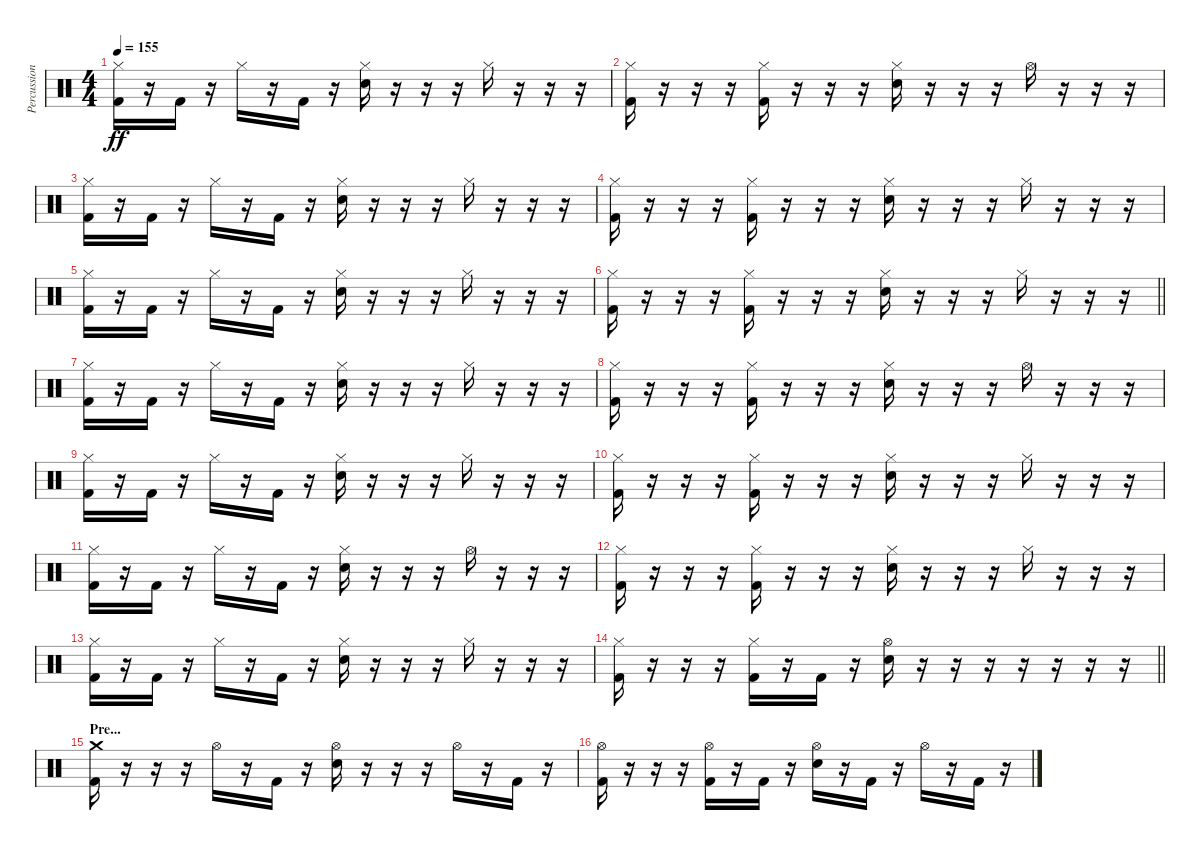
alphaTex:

\track ("Percussion" "Percussion") {instrument percussion}
\staff {score}
\articulation defaults
\ts (4 4)
\tempo 155
\clef neutral
\ks c
("Hi-Hat (closed)" "Kick (hit) 2").16{dy ff} r.16 "Kick (hit) 2".16 r.16 "Hi-Hat (closed)".16 r.16 "Kick (hit) 2".16 r.16 ("Hi-Hat (closed)" "Electric Snare (hit)").16 r.16 r.16 r.16 "Hi-Hat (closed)".16 r.16 r.16 r.16 |
("Hi-Hat (closed)" "Kick (hit) 2").16 r.16 r.16 r.16 ("Hi-Hat (closed)" "Kick (hit) 2").16 r.16 r.16 r.16 ("Hi-Hat (closed)" "Electric Snare (hit)").16 r.16 r.16 r.16 "Hi-Hat (open)".16 r.16 r.16 r.16 |
("Hi-Hat (closed)" "Kick (hit) 2").16 r.16 "Kick (hit) 2".16 r.16 "Hi-Hat (closed)".16 r.16 "Kick (hit) 2".16 r.16 ("Hi-Hat (closed)" "Electric Snare (hit)").16 r.16 r.16 r.16 "Hi-Hat (closed)".16 r.16 r.16 r.16 |
("Hi-Hat (closed)" "Kick (hit) 2").16 r.16 r.16 r.16 ("Hi-Hat (closed)" "Kick (hit) 2").16 r.16 r.16 r.16 ("Hi-Hat (closed)" "Electric Snare (hit)").16 r.16 r.16 r.16 "Hi-Hat (closed)".16 r.16 r.16 r.16 |
("Hi-Hat (closed)" "Kick (hit) 2").16 r.16 "Kick (hit) 2".16 r.16 "Hi-Hat (closed)".16 r.16 "Kick (hit) 2".16 r.16 ("Hi-Hat (closed)" "Electric Snare (hit)").16 r.16 r.16 r.16 "Hi-Hat (closed)".16 r.16 r.16 r.16 |
\barLineRight lightlight
("Hi-Hat (closed)" "Kick (hit) 2").16 r.16 r.16 r.16 ("Hi-Hat (closed)" "Kick (hit) 2").16 r.16 r.16 r.16 ("Hi-Hat (closed)" "Electric Snare (hit)").16 r.16 r.16 r.16 "Hi-Hat (closed)".16 r.16 r.16 r.16 |
("Hi-Hat (closed)" "Kick (hit) 2").16 r.16 "Kick (hit) 2".16 r.16 "Hi-Hat (closed)".16 r.16 "Kick (hit) 2".16 r.16 ("Hi-Hat (closed)" "Electric Snare (hit)").16 r.16 r.16 r.16 "Hi-Hat (closed)".16 r.16 r.16 r.16 |
("Hi-Hat (closed)" "Kick (hit) 2").16 r.16 r.16 r.16 ("Hi-Hat (closed)" "Kick (hit) 2").16 r.16 r.16 r.16 ("Hi-Hat (closed)" "Electric Snare (hit)").16 r.16 r.16 r.16 "Hi-Hat (open)".16 r.16 r.16 r.16 |
("Hi-Hat (closed)" "Kick (hit) 2").16 r.16 "Kick (hit) 2".16 r.16 "Hi-Hat (closed)".16 r.16 "Kick (hit) 2".16 r.16 ("Hi-Hat (closed)" "Electric Snare (hit)").16 r.16 r.16 r.16 "Hi-Hat (closed)".16 r.16 r.16 r.16 |
("Hi-Hat (closed)" "Kick (hit) 2").16 r.16 r.16 r.16 ("Hi-Hat (closed)" "Kick (hit) 2").16 r.16 r.16 r.16 ("Hi-Hat (closed)" "Electric Snare (hit)").16 r.16 r.16 r.16 "Hi-Hat (closed)".16 r.16 r.16 r.16 |
("Hi-Hat (closed)" "Kick (hit) 2").16 r.16 "Kick (hit) 2".16 r.16 "Hi-Hat (closed)".16 r.16 "Kick (hit) 2".16 r.16 ("Hi-Hat (closed)" "Electric Snare (hit)").16 r.16 r.16 r.16 "Hi-Hat (open)".16 r.16 r.16 r.16 |
("Hi-Hat (closed)" "Kick (hit) 2").16 r.16 r.16 r.16 ("Hi-Hat (closed)" "Kick (hit) 2").16 r.16 r.16 r.16 ("Hi-Hat (closed)" "Electric Snare (hit)").16 r.16 r.16 r.16 "Hi-Hat (closed)".16 r.16 r.16 r.16 |
("Hi-Hat (closed)" "Kick (hit) 2").16 r.16 "Kick (hit) 2".16 r.16 "Hi-Hat (closed)".16 r.16 "Kick (hit) 2".16 r.16 ("Hi-Hat (closed)" "Electric Snare (hit)").16 r.16 r.16 r.16 "Hi-Hat (closed)".16 r.16 r.16 r.16 |
\barLineRight lightlight
("Hi-Hat (closed)" "Kick (hit) 2").16 r.16 r.16 r.16 ("Hi-Hat (closed)" "Kick (hit) 2").16 r.16 "Kick (hit) 2".16 r.16 ("Hi-Hat (open)" "Electric Snare (hit)").16 r.16 r.16 r.16 r.16 r.16 r.16 r.16 |
\section ("" "Pre...")
("Crash medium (hit)" "Kick (hit) 2").16 r.16 r.16 r.16 "Hi-Hat (open)".16 r.16 "Kick (hit) 2".16 r.16 ("Hi-Hat (open)" "Electric Snare (hit)").16 r.16 r.16 r.16 "Hi-Hat (open)".16 r.16 "Kick (hit) 2".16 r.16 |
("Hi-Hat (open)" "Kick (hit) 2").16 r.16 r.16 r.16 ("Hi-Hat (open)" "Kick (hit) 2").16 r.16 "Kick (hit) 2".16 r.16 ("Hi-Hat (open)" "Electric Snare (hit)").16 r.16 "Kick (hit) 2".16 r.16 "Hi-Hat (open)".16 r.16 "Kick (hit) 2".16 r.16
